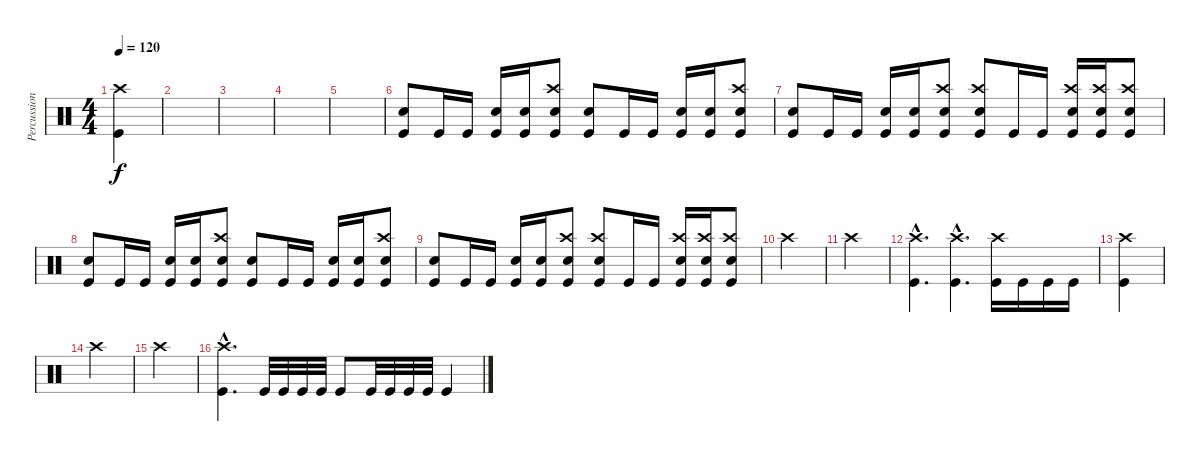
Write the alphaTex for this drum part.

\track ("Percussion" "Percussion") {instrument percussion}
\staff {score}
\articulation defaults
\ts (4 4)
\tempo 120
\clef neutral
\ks c
("Kick (hit)" "Crash high (hit)").4{dy f} |
|
|
|
|
("Kick (hit)" "Snare (hit) 2").8 "Kick (hit)".16 "Kick (hit)".16 ("Kick (hit)" "Snare (hit) 2").16 ("Kick (hit)" "Snare (hit) 2").16 ("Kick (hit)" "Snare (hit) 2" "Crash high (hit)").8 ("Kick (hit)" "Snare (hit) 2").8 "Kick (hit)".16 "Kick (hit)".16 ("Kick (hit)" "Snare (hit) 2").16 ("Kick (hit)" "Snare (hit) 2").16 ("Kick (hit)" "Snare (hit) 2" "Crash high (hit)").8 |
("Kick (hit)" "Snare (hit) 2").8 "Kick (hit)".16 "Kick (hit)".16 ("Kick (hit)" "Snare (hit) 2").16 ("Kick (hit)" "Snare (hit) 2").16 ("Kick (hit)" "Snare (hit) 2" "Crash high (hit)").8 ("Kick (hit)" "Snare (hit) 2" "Crash high (hit)").8 "Kick (hit)".16 "Kick (hit)".16 ("Kick (hit)" "Snare (hit) 2" "Crash high (hit)").16 ("Kick (hit)" "Snare (hit) 2" "Crash high (hit)").16 ("Kick (hit)" "Snare (hit) 2" "Crash high (hit)").8 |
("Kick (hit)" "Snare (hit) 2").8 "Kick (hit)".16 "Kick (hit)".16 ("Kick (hit)" "Snare (hit) 2").16 ("Kick (hit)" "Snare (hit) 2").16 ("Kick (hit)" "Snare (hit) 2" "Crash high (hit)").8 ("Kick (hit)" "Snare (hit) 2").8 "Kick (hit)".16 "Kick (hit)".16 ("Kick (hit)" "Snare (hit) 2").16 ("Kick (hit)" "Snare (hit) 2").16 ("Kick (hit)" "Snare (hit) 2" "Crash high (hit)").8 |
("Kick (hit)" "Snare (hit) 2").8 "Kick (hit)".16 "Kick (hit)".16 ("Kick (hit)" "Snare (hit) 2").16 ("Kick (hit)" "Snare (hit) 2").16 ("Kick (hit)" "Snare (hit) 2" "Crash high (hit)").8 ("Kick (hit)" "Snare (hit) 2" "Crash high (hit)").8 "Kick (hit)".16 "Kick (hit)".16 ("Kick (hit)" "Snare (hit) 2" "Crash high (hit)").16 ("Kick (hit)" "Snare (hit) 2" "Crash high (hit)").16 ("Kick (hit)" "Snare (hit) 2" "Crash high (hit)").8 |
"Crash high (hit)".4 |
"Crash high (hit)".4 |
("Kick (hit)"{hac} "Crash high (hit)"{hac}).4{d} ("Kick (hit)"{hac} "Crash high (hit)"{hac}).4{d} ("Kick (hit)" "Crash high (hit)").16 "Kick (hit)".16 "Kick (hit)".16 "Kick (hit)".16 |
("Kick (hit)" "Crash high (hit)").4 |
"Crash high (hit)".4 |
"Crash high (hit)".4 |
("Kick (hit)"{hac} "Crash high (hit)"{hac}).4{d} "Kick (hit)".32 "Kick (hit)".32 "Kick (hit)".32 "Kick (hit)".32 "Kick (hit)".8 "Kick (hit)".32 "Kick (hit)".32 "Kick (hit)".32 "Kick (hit)".32 "Kick (hit)".4
